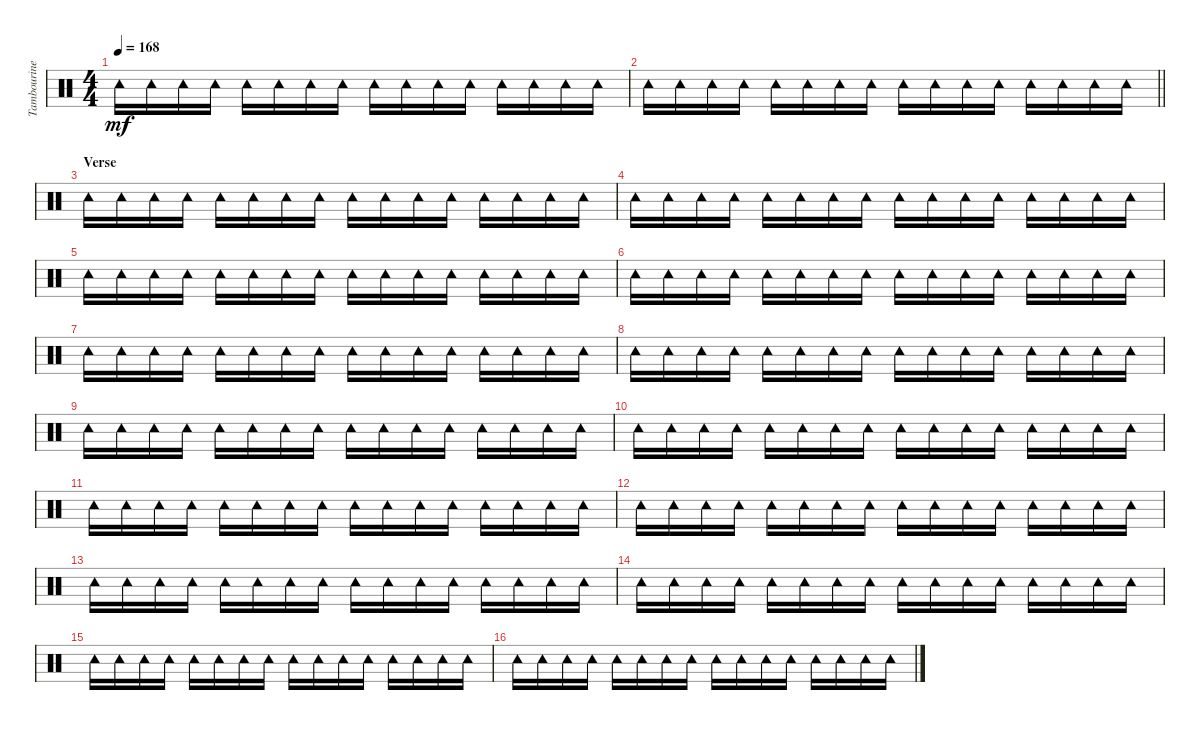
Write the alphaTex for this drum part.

\track ("Tambourine" "Tambourine") {instrument percussion}
\staff {score}
\articulation defaults
\ts (4 4)
\tempo 168
\clef neutral
\ks c "Tambourine (hit)".16{dy mf} "Tambourine (hit)".16 "Tambourine (hit)".16 "Tambourine (hit)".16 "Tambourine (hit)".16 "Tambourine (hit)".16 "Tambourine (hit)".16 "Tambourine (hit)".16 "Tambourine (hit)".16 "Tambourine (hit)".16 "Tambourine (hit)".16 "Tambourine (hit)".16 "Tambourine (hit)".16 "Tambourine (hit)".16 "Tambourine (hit)".16 "Tambourine (hit)".16
|
\barLineRight lightlight "Tambourine (hit)".16 "Tambourine (hit)".16 "Tambourine (hit)".16 "Tambourine (hit)".16 "Tambourine (hit)".16 "Tambourine (hit)".16 "Tambourine (hit)".16 "Tambourine (hit)".16 "Tambourine (hit)".16 "Tambourine (hit)".16 "Tambourine (hit)".16 "Tambourine (hit)".16 "Tambourine (hit)".16 "Tambourine (hit)".16 "Tambourine (hit)".16 "Tambourine (hit)".16
|
\section ("" "Verse")
"Tambourine (hit)".16 "Tambourine (hit)".16 "Tambourine (hit)".16 "Tambourine (hit)".16 "Tambourine (hit)".16 "Tambourine (hit)".16 "Tambourine (hit)".16 "Tambourine (hit)".16 "Tambourine (hit)".16 "Tambourine (hit)".16 "Tambourine (hit)".16 "Tambourine (hit)".16 "Tambourine (hit)".16 "Tambourine (hit)".16 "Tambourine (hit)".16 "Tambourine (hit)".16 |
"Tambourine (hit)".16 "Tambourine (hit)".16 "Tambourine (hit)".16 "Tambourine (hit)".16 "Tambourine (hit)".16 "Tambourine (hit)".16 "Tambourine (hit)".16 "Tambourine (hit)".16 "Tambourine (hit)".16 "Tambourine (hit)".16 "Tambourine (hit)".16 "Tambourine (hit)".16 "Tambourine (hit)".16 "Tambourine (hit)".16 "Tambourine (hit)".16 "Tambourine (hit)".16 |
"Tambourine (hit)".16 "Tambourine (hit)".16 "Tambourine (hit)".16 "Tambourine (hit)".16 "Tambourine (hit)".16 "Tambourine (hit)".16 "Tambourine (hit)".16 "Tambourine (hit)".16 "Tambourine (hit)".16 "Tambourine (hit)".16 "Tambourine (hit)".16 "Tambourine (hit)".16 "Tambourine (hit)".16 "Tambourine (hit)".16 "Tambourine (hit)".16 "Tambourine (hit)".16 |
"Tambourine (hit)".16 "Tambourine (hit)".16 "Tambourine (hit)".16 "Tambourine (hit)".16 "Tambourine (hit)".16 "Tambourine (hit)".16 "Tambourine (hit)".16 "Tambourine (hit)".16 "Tambourine (hit)".16 "Tambourine (hit)".16 "Tambourine (hit)".16 "Tambourine (hit)".16 "Tambourine (hit)".16 "Tambourine (hit)".16 "Tambourine (hit)".16 "Tambourine (hit)".16 |
"Tambourine (hit)".16 "Tambourine (hit)".16 "Tambourine (hit)".16 "Tambourine (hit)".16 "Tambourine (hit)".16 "Tambourine (hit)".16 "Tambourine (hit)".16 "Tambourine (hit)".16 "Tambourine (hit)".16 "Tambourine (hit)".16 "Tambourine (hit)".16 "Tambourine (hit)".16 "Tambourine (hit)".16 "Tambourine (hit)".16 "Tambourine (hit)".16 "Tambourine (hit)".16 |
"Tambourine (hit)".16 "Tambourine (hit)".16 "Tambourine (hit)".16 "Tambourine (hit)".16 "Tambourine (hit)".16 "Tambourine (hit)".16 "Tambourine (hit)".16 "Tambourine (hit)".16 "Tambourine (hit)".16 "Tambourine (hit)".16 "Tambourine (hit)".16 "Tambourine (hit)".16 "Tambourine (hit)".16 "Tambourine (hit)".16 "Tambourine (hit)".16 "Tambourine (hit)".16 |
"Tambourine (hit)".16 "Tambourine (hit)".16 "Tambourine (hit)".16 "Tambourine (hit)".16 "Tambourine (hit)".16 "Tambourine (hit)".16 "Tambourine (hit)".16 "Tambourine (hit)".16 "Tambourine (hit)".16 "Tambourine (hit)".16 "Tambourine (hit)".16 "Tambourine (hit)".16 "Tambourine (hit)".16 "Tambourine (hit)".16 "Tambourine (hit)".16 "Tambourine (hit)".16 |
"Tambourine (hit)".16 "Tambourine (hit)".16 "Tambourine (hit)".16 "Tambourine (hit)".16 "Tambourine (hit)".16 "Tambourine (hit)".16 "Tambourine (hit)".16 "Tambourine (hit)".16 "Tambourine (hit)".16 "Tambourine (hit)".16 "Tambourine (hit)".16 "Tambourine (hit)".16 "Tambourine (hit)".16 "Tambourine (hit)".16 "Tambourine (hit)".16 "Tambourine (hit)".16 |
"Tambourine (hit)".16 "Tambourine (hit)".16 "Tambourine (hit)".16 "Tambourine (hit)".16 "Tambourine (hit)".16 "Tambourine (hit)".16 "Tambourine (hit)".16 "Tambourine (hit)".16 "Tambourine (hit)".16 "Tambourine (hit)".16 "Tambourine (hit)".16 "Tambourine (hit)".16 "Tambourine (hit)".16 "Tambourine (hit)".16 "Tambourine (hit)".16 "Tambourine (hit)".16 |
"Tambourine (hit)".16 "Tambourine (hit)".16 "Tambourine (hit)".16 "Tambourine (hit)".16 "Tambourine (hit)".16 "Tambourine (hit)".16 "Tambourine (hit)".16 "Tambourine (hit)".16 "Tambourine (hit)".16 "Tambourine (hit)".16 "Tambourine (hit)".16 "Tambourine (hit)".16 "Tambourine (hit)".16 "Tambourine (hit)".16 "Tambourine (hit)".16 "Tambourine (hit)".16 |
"Tambourine (hit)".16 "Tambourine (hit)".16 "Tambourine (hit)".16 "Tambourine (hit)".16 "Tambourine (hit)".16 "Tambourine (hit)".16 "Tambourine (hit)".16 "Tambourine (hit)".16 "Tambourine (hit)".16 "Tambourine (hit)".16 "Tambourine (hit)".16 "Tambourine (hit)".16 "Tambourine (hit)".16 "Tambourine (hit)".16 "Tambourine (hit)".16 "Tambourine (hit)".16 |
"Tambourine (hit)".16 "Tambourine (hit)".16 "Tambourine (hit)".16 "Tambourine (hit)".16 "Tambourine (hit)".16 "Tambourine (hit)".16 "Tambourine (hit)".16 "Tambourine (hit)".16 "Tambourine (hit)".16 "Tambourine (hit)".16 "Tambourine (hit)".16 "Tambourine (hit)".16 "Tambourine (hit)".16 "Tambourine (hit)".16 "Tambourine (hit)".16 "Tambourine (hit)".16 |
"Tambourine (hit)".16 "Tambourine (hit)".16 "Tambourine (hit)".16 "Tambourine (hit)".16 "Tambourine (hit)".16 "Tambourine (hit)".16 "Tambourine (hit)".16 "Tambourine (hit)".16 "Tambourine (hit)".16 "Tambourine (hit)".16 "Tambourine (hit)".16 "Tambourine (hit)".16 "Tambourine (hit)".16 "Tambourine (hit)".16 "Tambourine (hit)".16 "Tambourine (hit)".16 |
"Tambourine (hit)".16 "Tambourine (hit)".16 "Tambourine (hit)".16 "Tambourine (hit)".16 "Tambourine (hit)".16 "Tambourine (hit)".16 "Tambourine (hit)".16 "Tambourine (hit)".16 "Tambourine (hit)".16 "Tambourine (hit)".16 "Tambourine (hit)".16 "Tambourine (hit)".16 "Tambourine (hit)".16 "Tambourine (hit)".16 "Tambourine (hit)".16 "Tambourine (hit)".16
